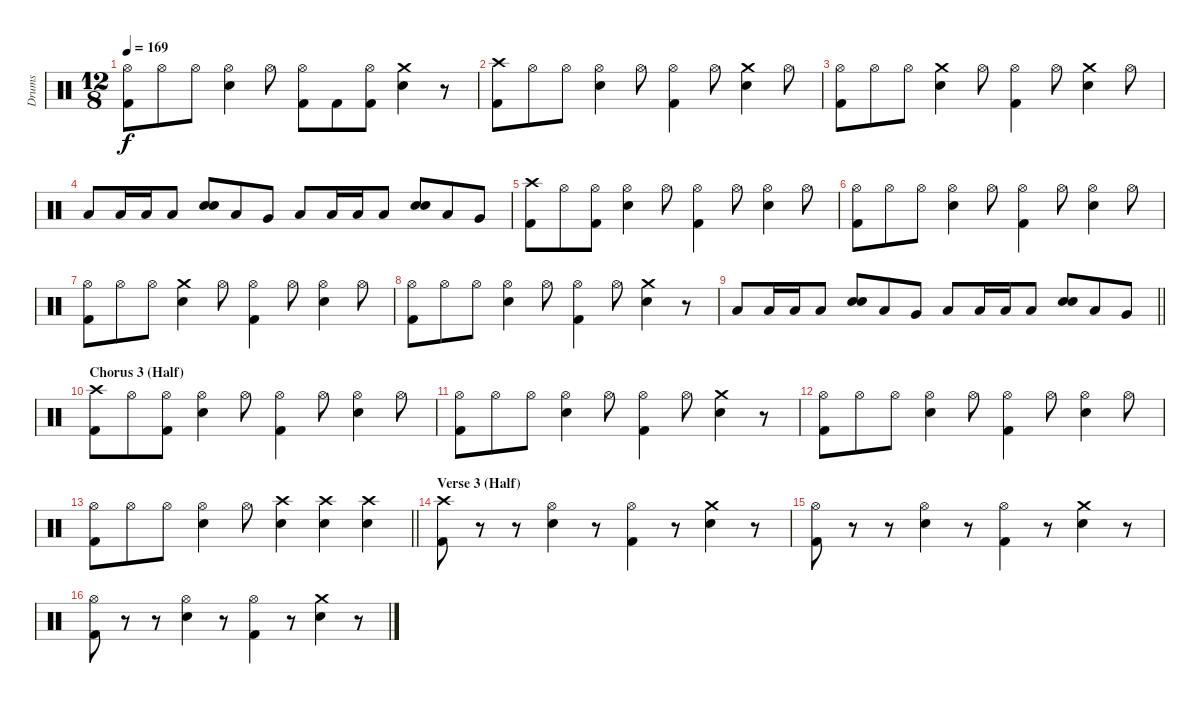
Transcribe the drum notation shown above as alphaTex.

\track ("Drums" "Drums") {instrument percussion}
\staff {score}
\articulation defaults
\ts (12 8)
\tempo 169
\clef neutral
\ks c
("Kick (hit) 2" "Hi-Hat (open)").8{dy f} "Hi-Hat (open)".8 "Hi-Hat (open)".8 ("Snare (hit) 2" "Hi-Hat (open)").4 "Hi-Hat (open)".8 ("Kick (hit) 2" "Hi-Hat (open)").8 "Kick (hit) 2".8 ("Kick (hit) 2" "Hi-Hat (open)").8 ("Snare (hit) 2" "Crash medium (hit)").4 r.8 |
("Kick (hit) 2" "Crash high (hit)").8 "Hi-Hat (open)".8 "Hi-Hat (open)".8 ("Snare (hit) 2" "Hi-Hat (open)").4 "Hi-Hat (open)".8 ("Kick (hit) 2" "Hi-Hat (open)").4 "Hi-Hat (open)".8 ("Snare (hit) 2" "Crash medium (hit)").4 "Hi-Hat (open)".8 |
("Kick (hit) 2" "Hi-Hat (open)").8 "Hi-Hat (open)".8 "Hi-Hat (open)".8 ("Snare (hit) 2" "Crash medium (hit)").4 "Hi-Hat (open)".8 ("Kick (hit) 2" "Hi-Hat (open)").4 "Hi-Hat (open)".8 ("Snare (hit) 2" "Crash medium (hit)").4 "Hi-Hat (open)".8 |
"Low Tom (hit)".8 "Low Tom (hit)".16 "Low Tom (hit)".16 "Low Tom (hit)".8 ("Snare (hit) 2" "Snare (hit) 2").8 "Low Tom (hit)".8 "Very Low Tom (hit)".8 "Low Tom (hit)".8 "Low Tom (hit)".16 "Low Tom (hit)".16 "Low Tom (hit)".8 ("Snare (hit) 2" "Snare (hit) 2").8 "Low Tom (hit)".8 "Very Low Tom (hit)".8 |
("Kick (hit) 2" "Crash high (hit)").8 "Hi-Hat (open)".8 ("Kick (hit) 2" "Hi-Hat (open)").8 ("Snare (hit) 2" "Hi-Hat (open)").4 "Hi-Hat (open)".8 ("Kick (hit) 2" "Hi-Hat (open)").4 "Hi-Hat (open)".8 ("Snare (hit) 2" "Hi-Hat (open)").4 "Hi-Hat (open)".8 |
("Kick (hit) 2" "Hi-Hat (open)").8 "Hi-Hat (open)".8 "Hi-Hat (open)".8 ("Snare (hit) 2" "Hi-Hat (open)").4 "Hi-Hat (open)".8 ("Kick (hit) 2" "Hi-Hat (open)").4 "Hi-Hat (open)".8 ("Snare (hit) 2" "Hi-Hat (open)").4 "Hi-Hat (open)".8 |
("Kick (hit) 2" "Hi-Hat (open)").8 "Hi-Hat (open)".8 "Hi-Hat (open)".8 ("Snare (hit) 2" "Crash medium (hit)").4 "Hi-Hat (open)".8 ("Kick (hit) 2" "Hi-Hat (open)").4 "Hi-Hat (open)".8 ("Snare (hit) 2" "Hi-Hat (open)").4 "Hi-Hat (open)".8 |
("Kick (hit) 2" "Hi-Hat (open)").8 "Hi-Hat (open)".8 "Hi-Hat (open)".8 ("Snare (hit) 2" "Hi-Hat (open)").4 "Hi-Hat (open)".8 ("Kick (hit) 2" "Hi-Hat (open)").4 "Hi-Hat (open)".8 ("Snare (hit) 2" "Crash medium (hit)").4 r.8 |
\barLineRight lightlight "Low Tom (hit)".8 "Low Tom (hit)".16 "Low Tom (hit)".16 "Low Tom (hit)".8
("Snare (hit) 2" "Snare (hit) 2").8 "Low Tom (hit)".8 "Very Low Tom (hit)".8 "Low Tom (hit)".8 "Low Tom (hit)".16 "Low Tom (hit)".16 "Low Tom (hit)".8 ("Snare (hit) 2" "Snare (hit) 2").8 "Low Tom (hit)".8 "Very Low Tom (hit)".8 |
\section ("" "Chorus 3 (Half)")
("Kick (hit) 2" "Crash high (hit)").8 "Hi-Hat (open)".8 ("Kick (hit) 2" "Hi-Hat (open)").8 ("Snare (hit) 2" "Hi-Hat (open)").4 "Hi-Hat (open)".8 ("Kick (hit) 2" "Hi-Hat (open)").4 "Hi-Hat (open)".8 ("Snare (hit) 2" "Hi-Hat (open)").4 "Hi-Hat (open)".8 |
("Kick (hit) 2" "Hi-Hat (open)").8 "Hi-Hat (open)".8 "Hi-Hat (open)".8 ("Snare (hit) 2" "Hi-Hat (open)").4 "Hi-Hat (open)".8 ("Kick (hit) 2" "Hi-Hat (open)").4 "Hi-Hat (open)".8 ("Snare (hit) 2" "Crash medium (hit)").4 r.8 |
("Kick (hit) 2" "Hi-Hat (open)").8 "Hi-Hat (open)".8 "Hi-Hat (open)".8 ("Snare (hit) 2" "Hi-Hat (open)").4 "Hi-Hat (open)".8 ("Kick (hit) 2" "Hi-Hat (open)").4 "Hi-Hat (open)".8 ("Snare (hit) 2" "Hi-Hat (open)").4 "Hi-Hat (open)".8 |
\barLineRight lightlight
("Kick (hit) 2" "Hi-Hat (open)").8 "Hi-Hat (open)".8 "Hi-Hat (open)".8 ("Snare (hit) 2" "Hi-Hat (open)").4 "Hi-Hat (open)".8 ("Snare (hit) 2" "Crash high (hit)").4 ("Snare (hit) 2" "Crash high (hit)").4 ("Snare (hit) 2" "Crash high (hit)").4 |
\section ("" "Verse 3 (Half)")
("Kick (hit) 2" "Crash high (hit)").8 r.8 r.8 ("Snare (hit) 2" "Hi-Hat (open)").4 r.8 ("Kick (hit) 2" "Hi-Hat (open)").4 r.8 ("Snare (hit) 2" "Crash medium (hit)").4 r.8 |
("Kick (hit) 2" "Hi-Hat (open)").8 r.8 r.8 ("Snare (hit) 2" "Hi-Hat (open)").4 r.8 ("Kick (hit) 2" "Hi-Hat (open)").4 r.8 ("Snare (hit) 2" "Crash medium (hit)").4 r.8 |
("Kick (hit) 2" "Hi-Hat (open)").8 r.8 r.8 ("Snare (hit) 2" "Hi-Hat (open)").4 r.8 ("Kick (hit) 2" "Hi-Hat (open)").4 r.8 ("Snare (hit) 2" "Crash medium (hit)").4 r.8
